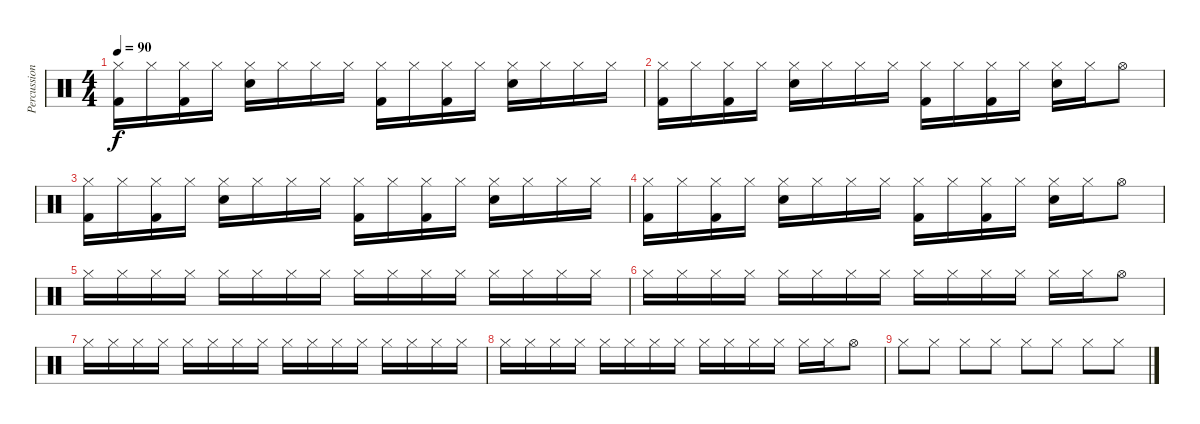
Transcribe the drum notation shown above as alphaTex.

\track ("Percussion" "Percussion") {instrument percussion}
\staff {score}
\articulation defaults
\ts (4 4)
\tempo 90
\clef neutral
\ks c
("Hi-Hat (closed)" "Kick (hit) 2").16{dy f} "Hi-Hat (closed)".16 ("Hi-Hat (closed)" "Kick (hit) 2").16 "Hi-Hat (closed)".16 ("Hi-Hat (closed)" "Electric Snare (hit)").16 "Hi-Hat (closed)".16 "Hi-Hat (closed)".16 "Hi-Hat (closed)".16 ("Hi-Hat (closed)" "Kick (hit) 2").16 "Hi-Hat (closed)".16 ("Hi-Hat (closed)" "Kick (hit) 2").16 "Hi-Hat (closed)".16 ("Hi-Hat (closed)" "Electric Snare (hit)").16 "Hi-Hat (closed)".16 "Hi-Hat (closed)".16 "Hi-Hat (closed)".16 |
("Hi-Hat (closed)" "Kick (hit) 2").16 "Hi-Hat (closed)".16 ("Hi-Hat (closed)" "Kick (hit) 2").16 "Hi-Hat (closed)".16 ("Hi-Hat (closed)" "Electric Snare (hit)").16 "Hi-Hat (closed)".16 "Hi-Hat (closed)".16 "Hi-Hat (closed)".16 ("Hi-Hat (closed)" "Kick (hit) 2").16 "Hi-Hat (closed)".16 ("Hi-Hat (closed)" "Kick (hit) 2").16 "Hi-Hat (closed)".16 ("Hi-Hat (closed)" "Electric Snare (hit)").16 "Hi-Hat (closed)".16 "Hi-Hat (open)".8 |
("Hi-Hat (closed)" "Kick (hit) 2").16 "Hi-Hat (closed)".16 ("Hi-Hat (closed)" "Kick (hit) 2").16 "Hi-Hat (closed)".16 ("Hi-Hat (closed)" "Electric Snare (hit)").16 "Hi-Hat (closed)".16 "Hi-Hat (closed)".16 "Hi-Hat (closed)".16 ("Hi-Hat (closed)" "Kick (hit) 2").16 "Hi-Hat (closed)".16 ("Hi-Hat (closed)" "Kick (hit) 2").16 "Hi-Hat (closed)".16 ("Hi-Hat (closed)" "Electric Snare (hit)").16 "Hi-Hat (closed)".16 "Hi-Hat (closed)".16 "Hi-Hat (closed)".16 |
("Hi-Hat (closed)" "Kick (hit) 2").16 "Hi-Hat (closed)".16 ("Hi-Hat (closed)" "Kick (hit) 2").16 "Hi-Hat (closed)".16 ("Hi-Hat (closed)" "Electric Snare (hit)").16 "Hi-Hat (closed)".16 "Hi-Hat (closed)".16 "Hi-Hat (closed)".16 ("Hi-Hat (closed)" "Kick (hit) 2").16 "Hi-Hat (closed)".16 ("Hi-Hat (closed)" "Kick (hit) 2").16 "Hi-Hat (closed)".16 ("Hi-Hat (closed)" "Electric Snare (hit)").16 "Hi-Hat (closed)".16 "Hi-Hat (open)".8 |
"Hi-Hat (closed)".16 "Hi-Hat (closed)".16 "Hi-Hat (closed)".16 "Hi-Hat (closed)".16 "Hi-Hat (closed)".16 "Hi-Hat (closed)".16 "Hi-Hat (closed)".16 "Hi-Hat (closed)".16 "Hi-Hat (closed)".16 "Hi-Hat (closed)".16 "Hi-Hat (closed)".16 "Hi-Hat (closed)".16 "Hi-Hat (closed)".16 "Hi-Hat (closed)".16 "Hi-Hat (closed)".16 "Hi-Hat (closed)".16 |
"Hi-Hat (closed)".16 "Hi-Hat (closed)".16 "Hi-Hat (closed)".16 "Hi-Hat (closed)".16 "Hi-Hat (closed)".16 "Hi-Hat (closed)".16 "Hi-Hat (closed)".16 "Hi-Hat (closed)".16 "Hi-Hat (closed)".16 "Hi-Hat (closed)".16 "Hi-Hat (closed)".16 "Hi-Hat (closed)".16 "Hi-Hat (closed)".16 "Hi-Hat (closed)".16 "Hi-Hat (open)".8 |
"Hi-Hat (closed)".16 "Hi-Hat (closed)".16 "Hi-Hat (closed)".16 "Hi-Hat (closed)".16 "Hi-Hat (closed)".16 "Hi-Hat (closed)".16 "Hi-Hat (closed)".16 "Hi-Hat (closed)".16 "Hi-Hat (closed)".16 "Hi-Hat (closed)".16 "Hi-Hat (closed)".16 "Hi-Hat (closed)".16 "Hi-Hat (closed)".16 "Hi-Hat (closed)".16 "Hi-Hat (closed)".16 "Hi-Hat (closed)".16 |
"Hi-Hat (closed)".16 "Hi-Hat (closed)".16 "Hi-Hat (closed)".16 "Hi-Hat (closed)".16 "Hi-Hat (closed)".16 "Hi-Hat (closed)".16 "Hi-Hat (closed)".16 "Hi-Hat (closed)".16 "Hi-Hat (closed)".16 "Hi-Hat (closed)".16 "Hi-Hat (closed)".16 "Hi-Hat (closed)".16 "Hi-Hat (closed)".16 "Hi-Hat (closed)".16 "Hi-Hat (open)".8 |
"Hi-Hat (closed)".8 "Hi-Hat (closed)".8 "Hi-Hat (closed)".8 "Hi-Hat (closed)".8 "Hi-Hat (closed)".8 "Hi-Hat (closed)".8 "Hi-Hat (closed)".8 "Hi-Hat (closed)".8
